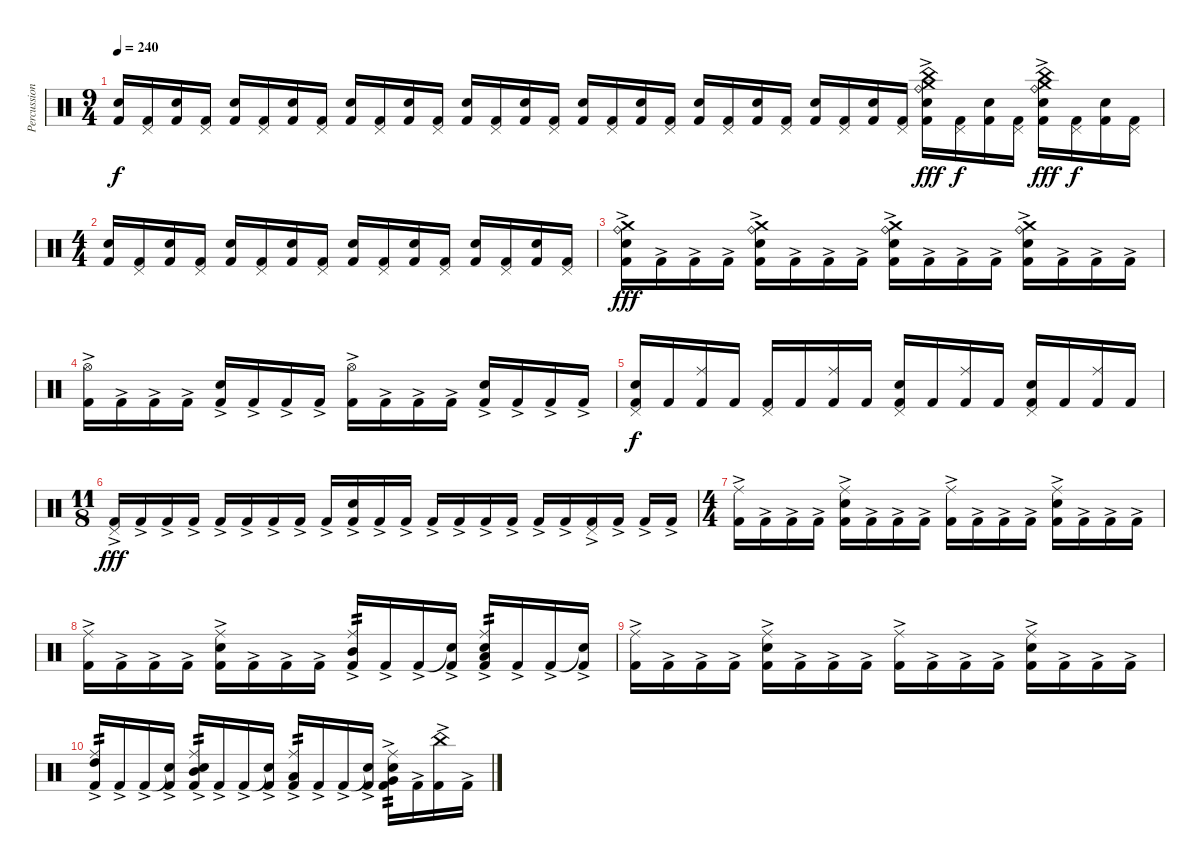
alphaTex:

\track ("Percussions" "Percussion") {instrument percussion}
\staff {score}
\articulation defaults
\ts (9 4)
\tempo 240
\clef neutral
\ks c
("Snare (hit) 2" "Kick (hit) 2").16{dy f} ("Pedal Hi-Hat (hit)" "Kick (hit) 2").16 ("Snare (hit) 2" "Kick (hit) 2").16 ("Pedal Hi-Hat (hit)" "Kick (hit) 2").16 ("Snare (hit) 2" "Kick (hit) 2").16 ("Pedal Hi-Hat (hit)" "Kick (hit) 2").16 ("Snare (hit) 2" "Kick (hit) 2").16 ("Pedal Hi-Hat (hit)" "Kick (hit) 2").16 ("Snare (hit) 2" "Kick (hit) 2").16 ("Pedal Hi-Hat (hit)" "Kick (hit) 2").16 ("Snare (hit) 2" "Kick (hit) 2").16 ("Pedal Hi-Hat (hit)" "Kick (hit) 2").16 ("Snare (hit) 2" "Kick (hit) 2").16 ("Pedal Hi-Hat (hit)" "Kick (hit) 2").16 ("Snare (hit) 2" "Kick (hit) 2").16 ("Pedal Hi-Hat (hit)" "Kick (hit) 2").16 ("Snare (hit) 2" "Kick (hit) 2").16 ("Pedal Hi-Hat (hit)" "Kick (hit) 2").16 ("Snare (hit) 2" "Kick (hit) 2").16 ("Pedal Hi-Hat (hit)" "Kick (hit) 2").16 ("Snare (hit) 2" "Kick (hit) 2").16 ("Pedal Hi-Hat (hit)" "Kick (hit) 2").16 ("Snare (hit) 2" "Kick (hit) 2").16 ("Pedal Hi-Hat (hit)" "Kick (hit) 2").16 ("Snare (hit) 2" "Kick (hit) 2").16 ("Pedal Hi-Hat (hit)" "Kick (hit) 2").16 ("Snare (hit) 2" "Kick (hit) 2").16 ("Pedal Hi-Hat (hit)" "Kick (hit) 2").16 ("Ride (bell)"{ac} "Crash medium (hit)" "China (hit)" "Snare (hit) 2" "Kick (hit) 2").16{dy fff} ("Pedal Hi-Hat (hit)" "Kick (hit) 2").16{dy f} ("Snare (hit) 2" "Kick (hit) 2").16 ("Pedal Hi-Hat (hit)" "Kick (hit) 2").16 ("Ride (bell)"{ac} "Crash medium (hit)" "China (hit)" "Snare (hit) 2" "Kick (hit) 2").16{dy fff} ("Pedal Hi-Hat (hit)" "Kick (hit) 2").16{dy f} ("Snare (hit) 2" "Kick (hit) 2").16 ("Pedal Hi-Hat (hit)" "Kick (hit) 2").16 |
\ts (4 4)
("Snare (hit) 2" "Kick (hit) 2").16 ("Pedal Hi-Hat (hit)" "Kick (hit) 2").16 ("Snare (hit) 2" "Kick (hit) 2").16 ("Pedal Hi-Hat (hit)" "Kick (hit) 2").16 ("Snare (hit) 2" "Kick (hit) 2").16 ("Pedal Hi-Hat (hit)" "Kick (hit) 2").16 ("Snare (hit) 2" "Kick (hit) 2").16 ("Pedal Hi-Hat (hit)" "Kick (hit) 2").16 ("Snare (hit) 2" "Kick (hit) 2").16 ("Pedal Hi-Hat (hit)" "Kick (hit) 2").16 ("Snare (hit) 2" "Kick (hit) 2").16 ("Pedal Hi-Hat (hit)" "Kick (hit) 2").16 ("Snare (hit) 2" "Kick (hit) 2").16 ("Pedal Hi-Hat (hit)" "Kick (hit) 2").16 ("Snare (hit) 2" "Kick (hit) 2").16 ("Pedal Hi-Hat (hit)" "Kick (hit) 2").16 |
("Snare (hit) 2" "Crash medium (hit)" "Ride (bell)" "Kick (hit) 2"{ac}).16{dy fff} "Kick (hit) 2"{ac}.16 "Kick (hit) 2"{ac}.16 "Kick (hit) 2"{ac}.16 ("Snare (hit) 2" "Crash medium (hit)" "Ride (bell)" "Kick (hit) 2"{ac}).16 "Kick (hit) 2"{ac}.16 "Kick (hit) 2"{ac}.16 "Kick (hit) 2"{ac}.16 ("Snare (hit) 2" "Crash medium (hit)" "Ride (bell)" "Kick (hit) 2"{ac}).16 "Kick (hit) 2"{ac}.16 "Kick (hit) 2"{ac}.16 "Kick (hit) 2"{ac}.16 ("Snare (hit) 2" "Crash medium (hit)" "Ride (bell)" "Kick (hit) 2"{ac}).16 "Kick (hit) 2"{ac}.16 "Kick (hit) 2"{ac}.16 "Kick (hit) 2"{ac}.16 |
("Hi-Hat (open)" "Kick (hit) 2"{ac}).16 "Kick (hit) 2"{ac}.16 "Kick (hit) 2"{ac}.16 "Kick (hit) 2"{ac}.16 ("Snare (hit) 2" "Kick (hit) 2"{ac}).16 "Kick (hit) 2"{ac}.16 "Kick (hit) 2"{ac}.16 "Kick (hit) 2"{ac}.16 ("Hi-Hat (open)" "Kick (hit) 2"{ac}).16 "Kick (hit) 2"{ac}.16 "Kick (hit) 2"{ac}.16 "Kick (hit) 2"{ac}.16 ("Snare (hit) 2" "Kick (hit) 2"{ac}).16 "Kick (hit) 2"{ac}.16 "Kick (hit) 2"{ac}.16 "Kick (hit) 2"{ac}.16 |
("Snare (hit) 2" "Pedal Hi-Hat (hit)" "Kick (hit) 2").16{dy f} "Kick (hit) 2".16 ("Ride (middle)" "Kick (hit) 2").16 "Kick (hit) 2".16 ("Pedal Hi-Hat (hit)" "Kick (hit) 2").16 "Kick (hit) 2".16 ("Ride (middle)" "Kick (hit) 2").16 "Kick (hit) 2".16 ("Snare (hit) 2" "Pedal Hi-Hat (hit)" "Kick (hit) 2").16 "Kick (hit) 2".16 ("Ride (middle)" "Kick (hit) 2").16 "Kick (hit) 2".16 ("Snare (hit) 2" "Pedal Hi-Hat (hit)" "Kick (hit) 2").16 "Kick (hit) 2".16 ("Ride (middle)" "Kick (hit) 2").16 "Kick (hit) 2".16 |
\ts (11 8)
("Pedal Hi-Hat (hit)" "Kick (hit) 2"{ac}).16{dy fff} "Kick (hit) 2"{ac}.16 "Kick (hit) 2"{ac}.16 "Kick (hit) 2"{ac}.16 "Kick (hit) 2"{ac}.16 "Kick (hit) 2"{ac}.16 "Kick (hit) 2"{ac}.16 "Kick (hit) 2"{ac}.16 "Kick (hit) 2"{ac}.16 ("Snare (hit) 2" "Kick (hit) 2"{ac}).16 "Kick (hit) 2"{ac}.16 "Kick (hit) 2"{ac}.16 "Kick (hit) 2"{ac}.16 "Kick (hit) 2"{ac}.16 "Kick (hit) 2"{ac}.16 "Kick (hit) 2"{ac}.16 "Kick (hit) 2"{ac}.16 "Kick (hit) 2"{ac}.16 ("Pedal Hi-Hat (hit)" "Kick (hit) 2"{ac}).16 "Kick (hit) 2"{ac}.16 "Kick (hit) 2"{ac}.16 "Kick (hit) 2"{ac}.16 |
\ts (4 4)
("Ride (middle)" "Kick (hit) 2"{ac}).16 "Kick (hit) 2"{ac}.16 "Kick (hit) 2"{ac}.16 "Kick (hit) 2"{ac}.16 ("Snare (hit) 2" "Ride (middle)" "Kick (hit) 2"{ac}).16 "Kick (hit) 2"{ac}.16 "Kick (hit) 2"{ac}.16 "Kick (hit) 2"{ac}.16 ("Ride (middle)" "Kick (hit) 2"{ac}).16 "Kick (hit) 2"{ac}.16 "Kick (hit) 2"{ac}.16 "Kick (hit) 2"{ac}.16 ("Snare (hit) 2" "Ride (middle)" "Kick (hit) 2"{ac}).16 "Kick (hit) 2"{ac}.16 "Kick (hit) 2"{ac}.16 "Kick (hit) 2"{ac}.16 |
("Ride (middle)" "Kick (hit) 2"{ac}).16 "Kick (hit) 2"{ac}.16 "Kick (hit) 2"{ac}.16 "Kick (hit) 2"{ac}.16 ("Snare (hit) 2" "Ride (middle)" "Kick (hit) 2"{ac}).16 "Kick (hit) 2"{ac}.16 "Kick (hit) 2"{ac}.16 "Kick (hit) 2"{ac}.16 ("Mid Tom (hit)"{ac} "Ride (middle)" "Kick (hit) 2"{ac}).16{tp 2} "Kick (hit) 2"{ac}.16 "Kick (hit) 2"{ac}.16 ("Snare (hit)"{t} "Kick (hit) 2"{ac}).16 ("Low Tom (hit)"{ac} "Snare (hit) 2" "Ride (middle)" "Kick (hit) 2"{ac}).16{tp 2} "Kick (hit) 2"{ac}.16 "Kick (hit) 2"{ac}.16 ("Snare (hit)"{t} "Kick (hit) 2"{ac}).16 |
("Ride (middle)" "Kick (hit) 2"{ac}).16 "Kick (hit) 2"{ac}.16 "Kick (hit) 2"{ac}.16 "Kick (hit) 2"{ac}.16 ("Snare (hit) 2" "Ride (middle)" "Kick (hit) 2"{ac}).16 "Kick (hit) 2"{ac}.16 "Kick (hit) 2"{ac}.16 "Kick (hit) 2"{ac}.16 ("Ride (middle)" "Kick (hit) 2"{ac}).16 "Kick (hit) 2"{ac}.16 "Kick (hit) 2"{ac}.16 "Kick (hit) 2"{ac}.16 ("Snare (hit) 2" "Ride (middle)" "Kick (hit) 2"{ac}).16 "Kick (hit) 2"{ac}.16 "Kick (hit) 2"{ac}.16 "Kick (hit) 2"{ac}.16 |
("High Tom (hit)"{ac} "Ride (middle)" "Kick (hit) 2"{ac}).16{tp 2} "Kick (hit) 2"{ac}.16 "Kick (hit) 2"{ac}.16 ("Snare (hit)"{t} "Kick (hit) 2"{ac}).16 ("Mid Tom (hit)"{ac} "Snare (hit) 2" "Ride (middle)" "Kick (hit) 2"{ac}).16{tp 2} "Kick (hit) 2"{ac}.16 "Kick (hit) 2"{ac}.16 ("Snare (hit)"{t} "Kick (hit) 2"{ac}).16 ("Low Tom (hit)"{ac} "Ride (middle)" "Kick (hit) 2"{ac}).16{tp 2} "Kick (hit) 2"{ac}.16 "Kick (hit) 2"{ac}.16 ("Snare (hit)"{t} "Kick (hit) 2"{ac}).16 ("Very Low Tom (hit)"{ac} "Snare (hit) 2" "Ride (middle)" "Kick (hit) 2").16{tp 2} "Kick (hit) 2"{ac}.16 ("China (hit)" "Kick (hit) 2"{ac}).16 "Kick (hit) 2"{ac}.16
